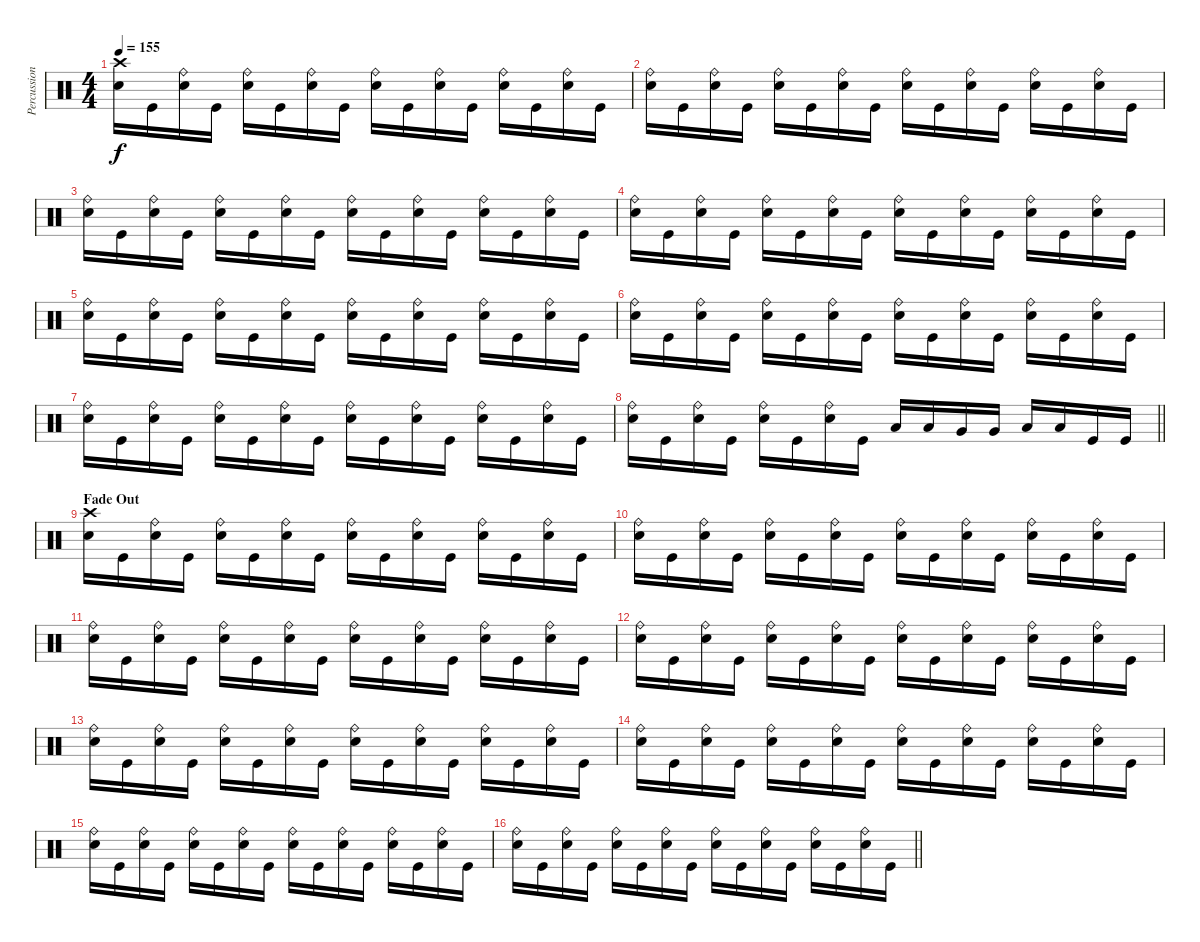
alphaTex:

\track ("Percussions" "Percussion") {instrument percussion}
\staff {score}
\articulation defaults
\ts (4 4)
\tempo 155
\clef neutral
\ks c
("Crash high (hit)" "Electric Snare (hit)").16{dy f} "Kick (hit)".16 ("Ride (bell)" "Electric Snare (hit)").16 "Kick (hit)".16 ("Ride (bell)" "Electric Snare (hit)").16 "Kick (hit)".16 ("Ride (bell)" "Electric Snare (hit)").16 "Kick (hit)".16 ("Ride (bell)" "Electric Snare (hit)").16 "Kick (hit)".16 ("Ride (bell)" "Electric Snare (hit)").16 "Kick (hit)".16 ("Ride (bell)" "Electric Snare (hit)").16 "Kick (hit)".16 ("Ride (bell)" "Electric Snare (hit)").16 "Kick (hit)".16 |
("Ride (bell)" "Electric Snare (hit)").16 "Kick (hit)".16 ("Ride (bell)" "Electric Snare (hit)").16 "Kick (hit)".16 ("Ride (bell)" "Electric Snare (hit)").16 "Kick (hit)".16 ("Ride (bell)" "Electric Snare (hit)").16 "Kick (hit)".16 ("Ride (bell)" "Electric Snare (hit)").16 "Kick (hit)".16 ("Ride (bell)" "Electric Snare (hit)").16 "Kick (hit)".16 ("Ride (bell)" "Electric Snare (hit)").16 "Kick (hit)".16 ("Ride (bell)" "Electric Snare (hit)").16 "Kick (hit)".16 |
("Ride (bell)" "Electric Snare (hit)").16 "Kick (hit)".16 ("Ride (bell)" "Electric Snare (hit)").16 "Kick (hit)".16 ("Ride (bell)" "Electric Snare (hit)").16 "Kick (hit)".16 ("Ride (bell)" "Electric Snare (hit)").16 "Kick (hit)".16 ("Ride (bell)" "Electric Snare (hit)").16 "Kick (hit)".16 ("Ride (bell)" "Electric Snare (hit)").16 "Kick (hit)".16 ("Ride (bell)" "Electric Snare (hit)").16 "Kick (hit)".16 ("Ride (bell)" "Electric Snare (hit)").16 "Kick (hit)".16 |
("Ride (bell)" "Electric Snare (hit)").16 "Kick (hit)".16 ("Ride (bell)" "Electric Snare (hit)").16 "Kick (hit)".16 ("Ride (bell)" "Electric Snare (hit)").16 "Kick (hit)".16 ("Ride (bell)" "Electric Snare (hit)").16 "Kick (hit)".16 ("Ride (bell)" "Electric Snare (hit)").16 "Kick (hit)".16 ("Ride (bell)" "Electric Snare (hit)").16 "Kick (hit)".16 ("Ride (bell)" "Electric Snare (hit)").16 "Kick (hit)".16 ("Ride (bell)" "Electric Snare (hit)").16 "Kick (hit)".16 |
("Ride (bell)" "Electric Snare (hit)").16 "Kick (hit)".16 ("Ride (bell)" "Electric Snare (hit)").16 "Kick (hit)".16 ("Ride (bell)" "Electric Snare (hit)").16 "Kick (hit)".16 ("Ride (bell)" "Electric Snare (hit)").16 "Kick (hit)".16 ("Ride (bell)" "Electric Snare (hit)").16 "Kick (hit)".16 ("Ride (bell)" "Electric Snare (hit)").16 "Kick (hit)".16 ("Ride (bell)" "Electric Snare (hit)").16 "Kick (hit)".16 ("Ride (bell)" "Electric Snare (hit)").16 "Kick (hit)".16 |
("Ride (bell)" "Electric Snare (hit)").16 "Kick (hit)".16 ("Ride (bell)" "Electric Snare (hit)").16 "Kick (hit)".16 ("Ride (bell)" "Electric Snare (hit)").16 "Kick (hit)".16 ("Ride (bell)" "Electric Snare (hit)").16 "Kick (hit)".16 ("Ride (bell)" "Electric Snare (hit)").16 "Kick (hit)".16 ("Ride (bell)" "Electric Snare (hit)").16 "Kick (hit)".16 ("Ride (bell)" "Electric Snare (hit)").16 "Kick (hit)".16 ("Ride (bell)" "Electric Snare (hit)").16 "Kick (hit)".16 |
("Ride (bell)" "Electric Snare (hit)").16 "Kick (hit)".16 ("Ride (bell)" "Electric Snare (hit)").16 "Kick (hit)".16 ("Ride (bell)" "Electric Snare (hit)").16 "Kick (hit)".16 ("Ride (bell)" "Electric Snare (hit)").16 "Kick (hit)".16 ("Ride (bell)" "Electric Snare (hit)").16 "Kick (hit)".16 ("Ride (bell)" "Electric Snare (hit)").16 "Kick (hit)".16 ("Ride (bell)" "Electric Snare (hit)").16 "Kick (hit)".16 ("Ride (bell)" "Electric Snare (hit)").16 "Kick (hit)".16 |
\barLineRight lightlight
("Ride (bell)" "Electric Snare (hit)").16 "Kick (hit)".16 ("Ride (bell)" "Electric Snare (hit)").16 "Kick (hit)".16 ("Ride (bell)" "Electric Snare (hit)").16 "Kick (hit)".16 ("Ride (bell)" "Electric Snare (hit)").16 "Kick (hit)".16 "Low Tom (hit)".16 "Low Tom (hit)".16 "Very Low Tom (hit)".16 "Very Low Tom (hit)".16 "Low Floor Tom (hit)".16 "Low Floor Tom (hit)".16 "Kick (hit)".16 "Kick (hit)".16 |
\section ("" "Fade Out")
("Crash high (hit)" "Electric Snare (hit)").16 "Kick (hit)".16 ("Ride (bell)" "Electric Snare (hit)").16 "Kick (hit)".16 ("Ride (bell)" "Electric Snare (hit)").16 "Kick (hit)".16 ("Ride (bell)" "Electric Snare (hit)").16 "Kick (hit)".16 ("Ride (bell)" "Electric Snare (hit)").16 "Kick (hit)".16 ("Ride (bell)" "Electric Snare (hit)").16 "Kick (hit)".16 ("Ride (bell)" "Electric Snare (hit)").16 "Kick (hit)".16 ("Ride (bell)" "Electric Snare (hit)").16 "Kick (hit)".16 |
("Ride (bell)" "Electric Snare (hit)").16 "Kick (hit)".16 ("Ride (bell)" "Electric Snare (hit)").16 "Kick (hit)".16 ("Ride (bell)" "Electric Snare (hit)").16 "Kick (hit)".16 ("Ride (bell)" "Electric Snare (hit)").16 "Kick (hit)".16 ("Ride (bell)" "Electric Snare (hit)").16 "Kick (hit)".16 ("Ride (bell)" "Electric Snare (hit)").16 "Kick (hit)".16 ("Ride (bell)" "Electric Snare (hit)").16 "Kick (hit)".16 ("Ride (bell)" "Electric Snare (hit)").16 "Kick (hit)".16 |
("Ride (bell)" "Electric Snare (hit)").16 "Kick (hit)".16 ("Ride (bell)" "Electric Snare (hit)").16 "Kick (hit)".16 ("Ride (bell)" "Electric Snare (hit)").16 "Kick (hit)".16 ("Ride (bell)" "Electric Snare (hit)").16 "Kick (hit)".16 ("Ride (bell)" "Electric Snare (hit)").16 "Kick (hit)".16 ("Ride (bell)" "Electric Snare (hit)").16 "Kick (hit)".16 ("Ride (bell)" "Electric Snare (hit)").16 "Kick (hit)".16 ("Ride (bell)" "Electric Snare (hit)").16 "Kick (hit)".16 |
("Ride (bell)" "Electric Snare (hit)").16 "Kick (hit)".16 ("Ride (bell)" "Electric Snare (hit)").16 "Kick (hit)".16 ("Ride (bell)" "Electric Snare (hit)").16 "Kick (hit)".16 ("Ride (bell)" "Electric Snare (hit)").16 "Kick (hit)".16 ("Ride (bell)" "Electric Snare (hit)").16 "Kick (hit)".16 ("Ride (bell)" "Electric Snare (hit)").16 "Kick (hit)".16 ("Ride (bell)" "Electric Snare (hit)").16 "Kick (hit)".16 ("Ride (bell)" "Electric Snare (hit)").16 "Kick (hit)".16 |
("Ride (bell)" "Electric Snare (hit)").16 "Kick (hit)".16 ("Ride (bell)" "Electric Snare (hit)").16 "Kick (hit)".16 ("Ride (bell)" "Electric Snare (hit)").16 "Kick (hit)".16 ("Ride (bell)" "Electric Snare (hit)").16 "Kick (hit)".16 ("Ride (bell)" "Electric Snare (hit)").16 "Kick (hit)".16 ("Ride (bell)" "Electric Snare (hit)").16 "Kick (hit)".16 ("Ride (bell)" "Electric Snare (hit)").16 "Kick (hit)".16 ("Ride (bell)" "Electric Snare (hit)").16 "Kick (hit)".16 |
("Ride (bell)" "Electric Snare (hit)").16 "Kick (hit)".16 ("Ride (bell)" "Electric Snare (hit)").16 "Kick (hit)".16 ("Ride (bell)" "Electric Snare (hit)").16 "Kick (hit)".16 ("Ride (bell)" "Electric Snare (hit)").16 "Kick (hit)".16 ("Ride (bell)" "Electric Snare (hit)").16 "Kick (hit)".16 ("Ride (bell)" "Electric Snare (hit)").16 "Kick (hit)".16 ("Ride (bell)" "Electric Snare (hit)").16 "Kick (hit)".16 ("Ride (bell)" "Electric Snare (hit)").16 "Kick (hit)".16 |
("Ride (bell)" "Electric Snare (hit)").16 "Kick (hit)".16 ("Ride (bell)" "Electric Snare (hit)").16 "Kick (hit)".16 ("Ride (bell)" "Electric Snare (hit)").16 "Kick (hit)".16 ("Ride (bell)" "Electric Snare (hit)").16 "Kick (hit)".16 ("Ride (bell)" "Electric Snare (hit)").16 "Kick (hit)".16 ("Ride (bell)" "Electric Snare (hit)").16 "Kick (hit)".16 ("Ride (bell)" "Electric Snare (hit)").16 "Kick (hit)".16 ("Ride (bell)" "Electric Snare (hit)").16 "Kick (hit)".16 |
\barLineRight lightlight
("Ride (bell)" "Electric Snare (hit)").16 "Kick (hit)".16 ("Ride (bell)" "Electric Snare (hit)").16 "Kick (hit)".16 ("Ride (bell)" "Electric Snare (hit)").16 "Kick (hit)".16 ("Ride (bell)" "Electric Snare (hit)").16 "Kick (hit)".16 ("Ride (bell)" "Electric Snare (hit)").16 "Kick (hit)".16 ("Ride (bell)" "Electric Snare (hit)").16 "Kick (hit)".16 ("Ride (bell)" "Electric Snare (hit)").16 "Kick (hit)".16 ("Ride (bell)" "Electric Snare (hit)").16 "Kick (hit)".16
